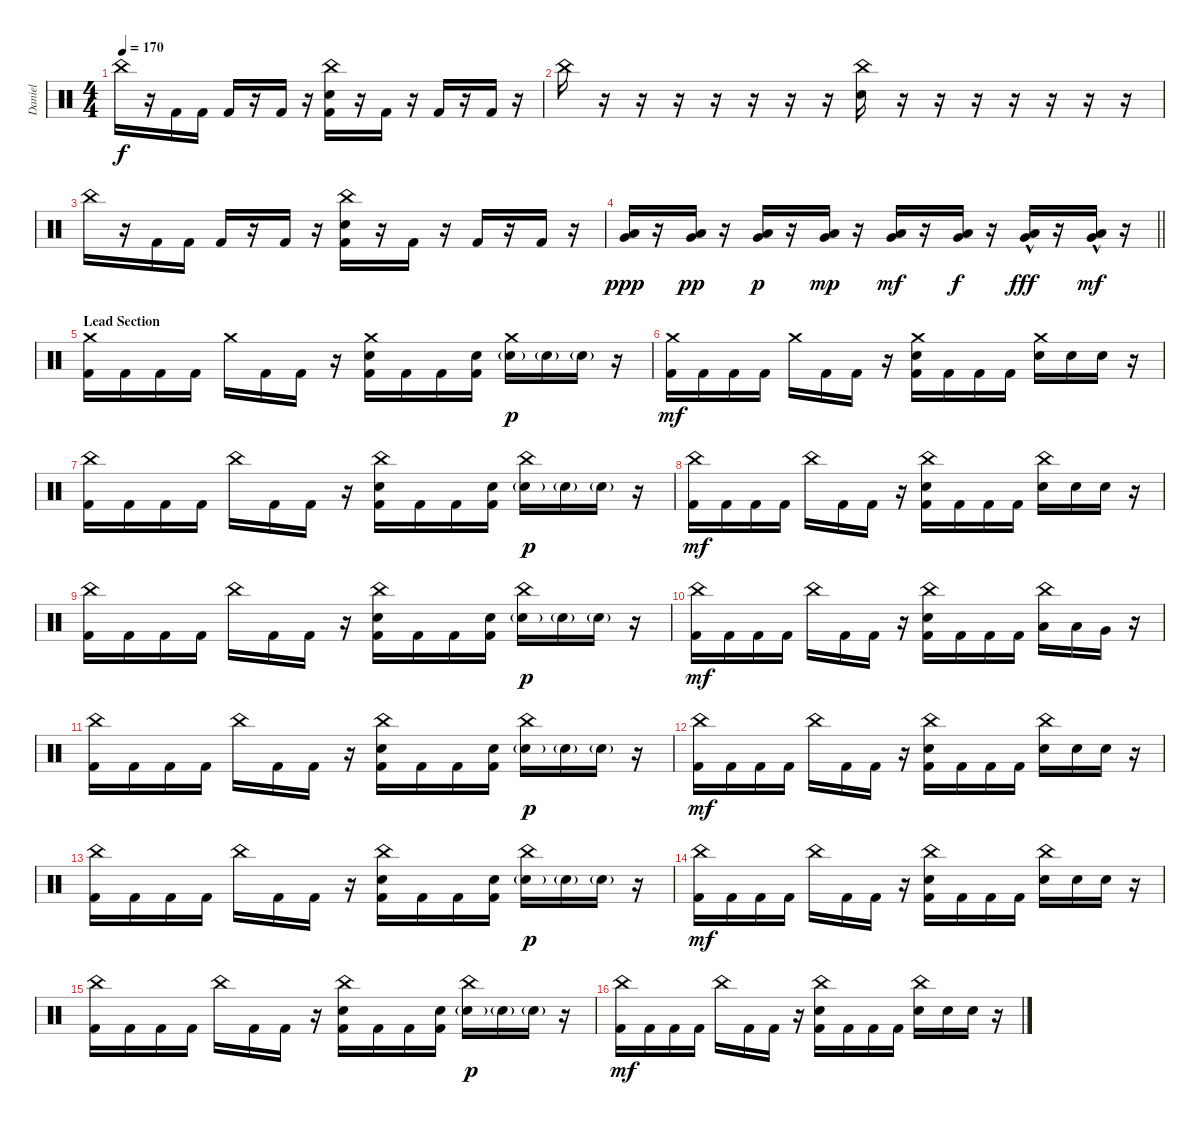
\track ("Daniel" "Daniel") {instrument percussion}
\staff {score}
\articulation defaults
\ts (4 4)
\tempo 170
\clef neutral
\ks c "China (hit)".16{dy f}
r.16 "Kick (hit) 2".16 "Kick (hit) 2".16 "Kick (hit) 2".16 r.16 "Kick (hit) 2".16 r.16 ("China (hit)" "Snare (hit) 2" "Kick (hit) 2").16 r.16 "Kick (hit) 2".16 r.16 "Kick (hit) 2".16 r.16 "Kick (hit) 2".16 r.16 |
"China (hit)".16 r.16 r.16 r.16 r.16 r.16 r.16 r.16 ("China (hit)" "Snare (hit) 2").16 r.16 r.16 r.16 r.16 r.16 r.16 r.16 |
"China (hit)".16 r.16 "Kick (hit) 2".16 "Kick (hit) 2".16 "Kick (hit) 2".16 r.16 "Kick (hit) 2".16 r.16 ("China (hit)" "Snare (hit) 2" "Kick (hit) 2").16 r.16 "Kick (hit) 2".16 r.16 "Kick (hit) 2".16 r.16 "Kick (hit) 2".16 r.16 |
\barLineRight lightlight
("Very Low Tom (hit)" "Low Tom (hit)").16{dy ppp} r.16 ("Very Low Tom (hit)" "Low Tom (hit)").16{dy pp} r.16 ("Very Low Tom (hit)" "Low Tom (hit)").16{dy p} r.16 ("Very Low Tom (hit)" "Low Tom (hit)").16{dy mp} r.16 ("Very Low Tom (hit)" "Low Tom (hit)").16{dy mf} r.16 ("Very Low Tom (hit)" "Low Tom (hit)").16{dy f} r.16 ("Very Low Tom (hit)"{hac} "Low Tom (hit)"{hac}).16{dy fff} r.16 ("Very Low Tom (hit)"{hac} "Low Tom (hit)"{hac}).16{dy mf} r.16 |
\section ("" "Lead Section")
("Crash medium (hit)" "Kick (hit) 2").16 "Kick (hit) 2".16 "Kick (hit) 2".16 "Kick (hit) 2".16 "Crash medium (hit)".16 "Kick (hit) 2".16 "Kick (hit) 2".16 r.16 ("Crash medium (hit)" "Snare (hit) 2" "Kick (hit) 2").16 "Kick (hit) 2".16 "Kick (hit) 2".16 ("Snare (hit) 2" "Kick (hit) 2").16 ("Crash medium (hit)" "Snare (hit) 2"{g}).16{dy p} "Snare (hit) 2"{g}.16 "Snare (hit) 2"{g}.16 r.16 |
("Crash medium (hit)" "Kick (hit) 2").16{dy mf} "Kick (hit) 2".16 "Kick (hit) 2".16 "Kick (hit) 2".16 "Crash medium (hit)".16 "Kick (hit) 2".16 "Kick (hit) 2".16 r.16 ("Crash medium (hit)" "Snare (hit) 2" "Kick (hit) 2").16 "Kick (hit) 2".16 "Kick (hit) 2".16 "Kick (hit) 2".16 ("Crash medium (hit)" "Snare (hit) 2").16 "Snare (hit) 2".16 "Snare (hit) 2".16 r.16 |
("China (hit)" "Kick (hit) 2").16 "Kick (hit) 2".16 "Kick (hit) 2".16 "Kick (hit) 2".16 "China (hit)".16 "Kick (hit) 2".16 "Kick (hit) 2".16 r.16 ("China (hit)" "Snare (hit) 2" "Kick (hit) 2").16 "Kick (hit) 2".16 "Kick (hit) 2".16 ("Snare (hit) 2" "Kick (hit) 2").16 ("China (hit)" "Snare (hit) 2"{g}).16{dy p} "Snare (hit) 2"{g}.16 "Snare (hit) 2"{g}.16 r.16 |
("China (hit)" "Kick (hit) 2").16{dy mf} "Kick (hit) 2".16 "Kick (hit) 2".16 "Kick (hit) 2".16 "China (hit)".16 "Kick (hit) 2".16 "Kick (hit) 2".16 r.16 ("China (hit)" "Snare (hit) 2" "Kick (hit) 2").16 "Kick (hit) 2".16 "Kick (hit) 2".16 "Kick (hit) 2".16 ("China (hit)" "Snare (hit) 2").16 "Snare (hit) 2".16 "Snare (hit) 2".16 r.16 |
("China (hit)" "Kick (hit) 2").16 "Kick (hit) 2".16 "Kick (hit) 2".16 "Kick (hit) 2".16 "China (hit)".16 "Kick (hit) 2".16 "Kick (hit) 2".16 r.16 ("China (hit)" "Snare (hit) 2" "Kick (hit) 2").16 "Kick (hit) 2".16 "Kick (hit) 2".16 ("Snare (hit) 2" "Kick (hit) 2").16 ("China (hit)" "Snare (hit) 2"{g}).16{dy p} "Snare (hit) 2"{g}.16 "Snare (hit) 2"{g}.16 r.16 |
("China (hit)" "Kick (hit) 2").16{dy mf} "Kick (hit) 2".16 "Kick (hit) 2".16 "Kick (hit) 2".16 "China (hit)".16 "Kick (hit) 2".16 "Kick (hit) 2".16 r.16 ("China (hit)" "Snare (hit) 2" "Kick (hit) 2").16 "Kick (hit) 2".16 "Kick (hit) 2".16 "Kick (hit) 2".16 ("China (hit)" "Low Tom (hit)").16 "Low Tom (hit)".16 "Very Low Tom (hit)".16 r.16 |
("China (hit)" "Kick (hit) 2").16 "Kick (hit) 2".16 "Kick (hit) 2".16 "Kick (hit) 2".16 "China (hit)".16 "Kick (hit) 2".16 "Kick (hit) 2".16 r.16 ("China (hit)" "Snare (hit) 2" "Kick (hit) 2").16 "Kick (hit) 2".16 "Kick (hit) 2".16 ("Snare (hit) 2" "Kick (hit) 2").16 ("China (hit)" "Snare (hit) 2"{g}).16{dy p} "Snare (hit) 2"{g}.16 "Snare (hit) 2"{g}.16 r.16 |
("China (hit)" "Kick (hit) 2").16{dy mf} "Kick (hit) 2".16 "Kick (hit) 2".16 "Kick (hit) 2".16 "China (hit)".16 "Kick (hit) 2".16 "Kick (hit) 2".16 r.16 ("China (hit)" "Snare (hit) 2" "Kick (hit) 2").16 "Kick (hit) 2".16 "Kick (hit) 2".16 "Kick (hit) 2".16 ("China (hit)" "Snare (hit) 2").16 "Snare (hit) 2".16 "Snare (hit) 2".16 r.16 |
("China (hit)" "Kick (hit) 2").16 "Kick (hit) 2".16 "Kick (hit) 2".16 "Kick (hit) 2".16 "China (hit)".16 "Kick (hit) 2".16 "Kick (hit) 2".16 r.16 ("China (hit)" "Snare (hit) 2" "Kick (hit) 2").16 "Kick (hit) 2".16 "Kick (hit) 2".16 ("Snare (hit) 2" "Kick (hit) 2").16 ("China (hit)" "Snare (hit) 2"{g}).16{dy p} "Snare (hit) 2"{g}.16 "Snare (hit) 2"{g}.16 r.16 |
("China (hit)" "Kick (hit) 2").16{dy mf} "Kick (hit) 2".16 "Kick (hit) 2".16 "Kick (hit) 2".16 "China (hit)".16 "Kick (hit) 2".16 "Kick (hit) 2".16 r.16 ("China (hit)" "Snare (hit) 2" "Kick (hit) 2").16 "Kick (hit) 2".16 "Kick (hit) 2".16 "Kick (hit) 2".16 ("China (hit)" "Snare (hit) 2").16 "Snare (hit) 2".16 "Snare (hit) 2".16 r.16 |
("China (hit)" "Kick (hit) 2").16 "Kick (hit) 2".16 "Kick (hit) 2".16 "Kick (hit) 2".16 "China (hit)".16 "Kick (hit) 2".16 "Kick (hit) 2".16 r.16 ("China (hit)" "Snare (hit) 2" "Kick (hit) 2").16 "Kick (hit) 2".16 "Kick (hit) 2".16 ("Snare (hit) 2" "Kick (hit) 2").16 ("China (hit)" "Snare (hit) 2"{g}).16{dy p} "Snare (hit) 2"{g}.16 "Snare (hit) 2"{g}.16 r.16 |
("China (hit)" "Kick (hit) 2").16{dy mf} "Kick (hit) 2".16 "Kick (hit) 2".16 "Kick (hit) 2".16 "China (hit)".16 "Kick (hit) 2".16 "Kick (hit) 2".16 r.16 ("China (hit)" "Snare (hit) 2" "Kick (hit) 2").16 "Kick (hit) 2".16 "Kick (hit) 2".16 "Kick (hit) 2".16 ("China (hit)" "Snare (hit) 2").16 "Snare (hit) 2".16 "Snare (hit) 2".16 r.16
